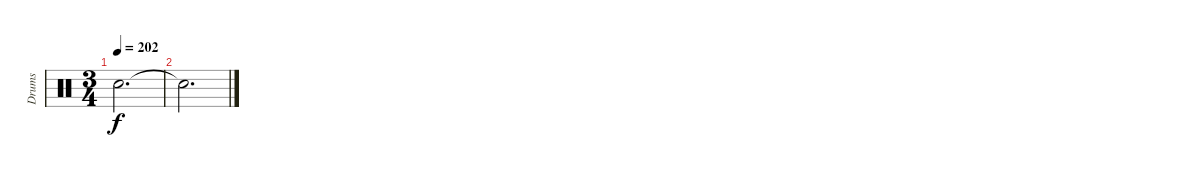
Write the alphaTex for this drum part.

\track ("Drums" "Drums") {instrument percussion}
\staff {score}
\articulation defaults
\ts (3 4)
\tempo 202
\clef neutral
\ks c "Snare (hit)"{t}.2{d dy f}
|
"Snare (hit)"{t}.2{d}
